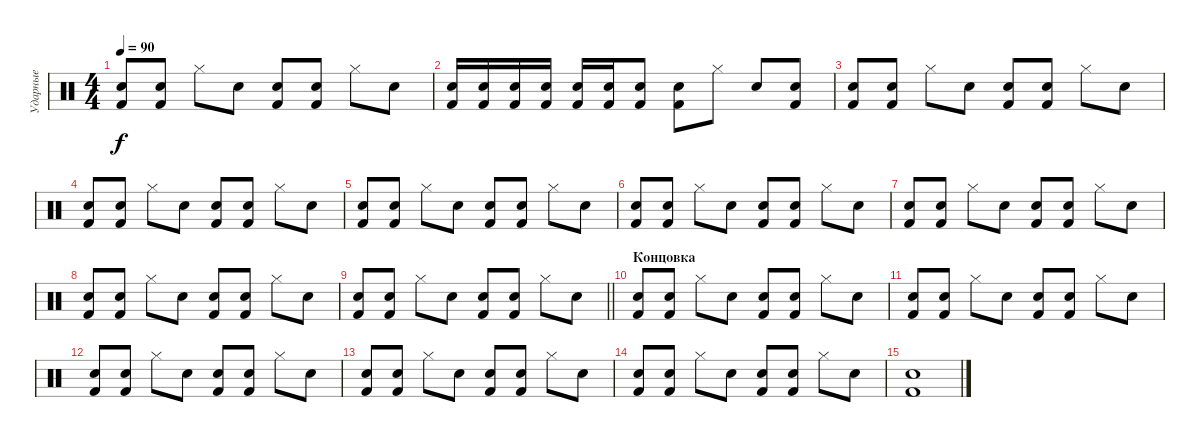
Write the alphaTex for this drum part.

\track ("Ударные" "Ударные") {instrument percussion}
\staff {score}
\articulation defaults
\ts (4 4)
\tempo 90
\clef neutral
\ks c
("Kick (hit) 2" "Snare (hit) 2").8{dy f} ("Kick (hit) 2" "Snare (hit) 2").8 "Hi-Hat (closed)".8 "Snare (hit) 2".8 ("Kick (hit) 2" "Snare (hit) 2").8 ("Kick (hit) 2" "Snare (hit) 2").8 "Hi-Hat (closed)".8 "Snare (hit) 2".8 |
("Snare (hit) 2" "Kick (hit) 2").16 ("Snare (hit) 2" "Kick (hit) 2").16 ("Snare (hit) 2" "Kick (hit) 2").16 ("Snare (hit) 2" "Kick (hit) 2").16 ("Snare (hit) 2" "Kick (hit) 2").16 ("Snare (hit) 2" "Kick (hit) 2").16 ("Snare (hit) 2" "Kick (hit) 2").8 ("Snare (hit) 2" "Kick (hit) 2").8 "Hi-Hat (closed)".8 "Snare (hit) 2".8 ("Snare (hit) 2" "Kick (hit) 2").8 |
("Kick (hit) 2" "Snare (hit) 2").8 ("Kick (hit) 2" "Snare (hit) 2").8 "Hi-Hat (closed)".8 "Snare (hit) 2".8 ("Kick (hit) 2" "Snare (hit) 2").8 ("Kick (hit) 2" "Snare (hit) 2").8 "Hi-Hat (closed)".8 "Snare (hit) 2".8 |
("Kick (hit) 2" "Snare (hit) 2").8 ("Kick (hit) 2" "Snare (hit) 2").8 "Hi-Hat (closed)".8 "Snare (hit) 2".8 ("Kick (hit) 2" "Snare (hit) 2").8 ("Kick (hit) 2" "Snare (hit) 2").8 "Hi-Hat (closed)".8 "Snare (hit) 2".8 |
("Kick (hit) 2" "Snare (hit) 2").8 ("Kick (hit) 2" "Snare (hit) 2").8 "Hi-Hat (closed)".8 "Snare (hit) 2".8 ("Kick (hit) 2" "Snare (hit) 2").8 ("Kick (hit) 2" "Snare (hit) 2").8 "Hi-Hat (closed)".8 "Snare (hit) 2".8 |
("Kick (hit) 2" "Snare (hit) 2").8 ("Kick (hit) 2" "Snare (hit) 2").8 "Hi-Hat (closed)".8 "Snare (hit) 2".8 ("Kick (hit) 2" "Snare (hit) 2").8 ("Kick (hit) 2" "Snare (hit) 2").8 "Hi-Hat (closed)".8 "Snare (hit) 2".8 |
("Kick (hit) 2" "Snare (hit) 2").8 ("Kick (hit) 2" "Snare (hit) 2").8 "Hi-Hat (closed)".8 "Snare (hit) 2".8 ("Kick (hit) 2" "Snare (hit) 2").8 ("Kick (hit) 2" "Snare (hit) 2").8 "Hi-Hat (closed)".8 "Snare (hit) 2".8 |
("Kick (hit) 2" "Snare (hit) 2").8 ("Kick (hit) 2" "Snare (hit) 2").8 "Hi-Hat (closed)".8 "Snare (hit) 2".8 ("Kick (hit) 2" "Snare (hit) 2").8 ("Kick (hit) 2" "Snare (hit) 2").8 "Hi-Hat (closed)".8 "Snare (hit) 2".8 |
\barLineRight lightlight
("Kick (hit) 2" "Snare (hit) 2").8 ("Kick (hit) 2" "Snare (hit) 2").8 "Hi-Hat (closed)".8 "Snare (hit) 2".8 ("Kick (hit) 2" "Snare (hit) 2").8 ("Kick (hit) 2" "Snare (hit) 2").8 "Hi-Hat (closed)".8 "Snare (hit) 2".8 |
\section ("" "Концовка")
("Kick (hit) 2" "Snare (hit) 2").8 ("Kick (hit) 2" "Snare (hit) 2").8 "Hi-Hat (closed)".8 "Snare (hit) 2".8 ("Kick (hit) 2" "Snare (hit) 2").8 ("Kick (hit) 2" "Snare (hit) 2").8 "Hi-Hat (closed)".8 "Snare (hit) 2".8 |
("Kick (hit) 2" "Snare (hit) 2").8 ("Kick (hit) 2" "Snare (hit) 2").8 "Hi-Hat (closed)".8 "Snare (hit) 2".8 ("Kick (hit) 2" "Snare (hit) 2").8 ("Kick (hit) 2" "Snare (hit) 2").8 "Hi-Hat (closed)".8 "Snare (hit) 2".8 |
("Kick (hit) 2" "Snare (hit) 2").8 ("Kick (hit) 2" "Snare (hit) 2").8 "Hi-Hat (closed)".8 "Snare (hit) 2".8 ("Kick (hit) 2" "Snare (hit) 2").8 ("Kick (hit) 2" "Snare (hit) 2").8 "Hi-Hat (closed)".8 "Snare (hit) 2".8 |
("Kick (hit) 2" "Snare (hit) 2").8 ("Kick (hit) 2" "Snare (hit) 2").8 "Hi-Hat (closed)".8 "Snare (hit) 2".8 ("Kick (hit) 2" "Snare (hit) 2").8 ("Kick (hit) 2" "Snare (hit) 2").8 "Hi-Hat (closed)".8 "Snare (hit) 2".8 |
("Kick (hit) 2" "Snare (hit) 2").8 ("Kick (hit) 2" "Snare (hit) 2").8 "Hi-Hat (closed)".8 "Snare (hit) 2".8 ("Kick (hit) 2" "Snare (hit) 2").8 ("Kick (hit) 2" "Snare (hit) 2").8 "Hi-Hat (closed)".8 "Snare (hit) 2".8 |
("Snare (hit) 2" "Kick (hit) 2").1
